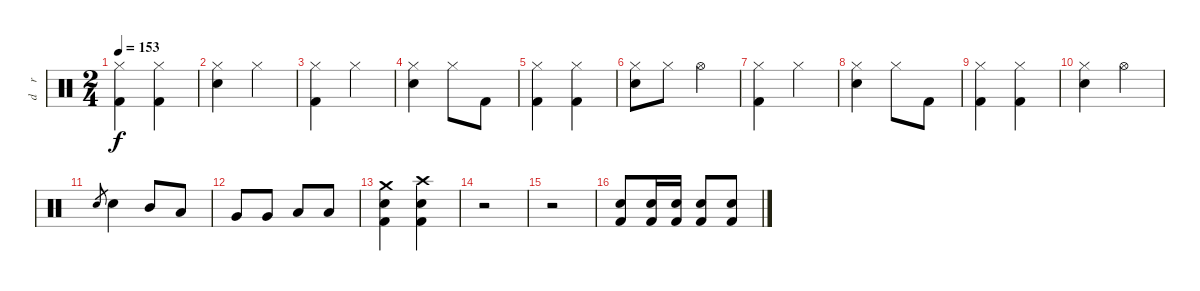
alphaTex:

\track ("d    r     u    m    s" "d    r    ") {instrument percussion}
\staff {score}
\articulation defaults
\ts (2 4)
\tempo 153
\clef neutral
\ks c
("Hi-Hat (closed)" "Kick (hit) 2").4{dy f} ("Hi-Hat (closed)" "Kick (hit) 2").4 |
("Hi-Hat (closed)" "Electric Snare (hit)").4 "Hi-Hat (closed)".4 |
("Hi-Hat (closed)" "Kick (hit) 2").4 "Hi-Hat (closed)".4 |
("Hi-Hat (closed)" "Electric Snare (hit)").4 "Hi-Hat (closed)".8 "Kick (hit) 2".8 |
("Hi-Hat (closed)" "Kick (hit) 2").4 ("Hi-Hat (closed)" "Kick (hit) 2").4 |
("Hi-Hat (closed)" "Electric Snare (hit)").8 "Hi-Hat (closed)".8 "Hi-Hat (open)".4 |
("Hi-Hat (closed)" "Kick (hit) 2").4 "Hi-Hat (closed)".4 |
("Hi-Hat (closed)" "Electric Snare (hit)").4 "Hi-Hat (closed)".8 "Kick (hit) 2".8 |
("Hi-Hat (closed)" "Kick (hit) 2").4 ("Hi-Hat (closed)" "Kick (hit) 2").4 |
("Hi-Hat (closed)" "Electric Snare (hit)").4 "Hi-Hat (open)".4 |
"Electric Snare (hit)".8{gr} "Electric Snare (hit)".4 "Mid Tom (hit)".8 "Low Tom (hit)".8 |
"Very Low Tom (hit)".8 "Very Low Tom (hit)".8 "Low Floor Tom (hit)".8 "Low Floor Tom (hit)".8 |
("Crash medium (hit)" "Electric Snare (hit)" "Kick (hit) 2").4 ("Crash high (hit)" "Electric Snare (hit)" "Kick (hit) 2").4 |
r.2 |
r.2 |
("Electric Snare (hit)" "Kick (hit) 2").8 ("Electric Snare (hit)" "Kick (hit) 2").16 ("Electric Snare (hit)" "Kick (hit) 2").16 ("Electric Snare (hit)" "Kick (hit) 2").8 ("Electric Snare (hit)" "Kick (hit) 2").8
